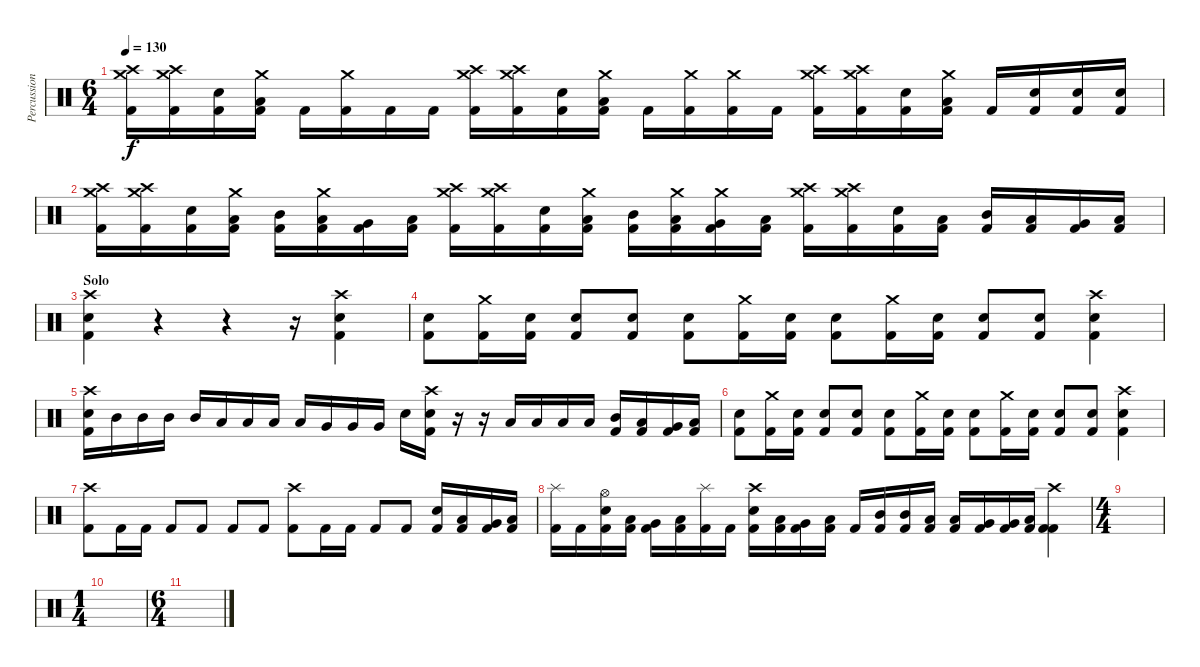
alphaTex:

\track ("Percussion" "Percussion") {instrument percussion}
\staff {score}
\articulation defaults
\ts (6 4)
\tempo 130
\clef neutral
\ks c
("Crash medium (hit)" "Crash high (hit)" "Kick (hit) 2").16{dy f} ("Crash medium (hit)" "Crash high (hit)" "Kick (hit) 2").16 ("Electric Snare (hit)" "Kick (hit) 2").16 ("Crash medium (hit)" "Low Tom (hit)" "Kick (hit) 2").16 "Kick (hit) 2".16 ("Crash medium (hit)" "Kick (hit) 2").16 "Kick (hit) 2".16 "Kick (hit) 2".16 ("Crash medium (hit)" "Crash high (hit)" "Kick (hit) 2").16 ("Crash medium (hit)" "Crash high (hit)" "Kick (hit) 2").16 ("Electric Snare (hit)" "Kick (hit) 2").16 ("Crash medium (hit)" "Low Tom (hit)" "Kick (hit) 2").16 "Kick (hit) 2".16 ("Crash medium (hit)" "Kick (hit) 2").16 ("Crash medium (hit)" "Kick (hit) 2").16 "Kick (hit) 2".16 ("Crash medium (hit)" "Crash high (hit)" "Kick (hit) 2").16 ("Crash medium (hit)" "Crash high (hit)" "Kick (hit) 2").16 ("Electric Snare (hit)" "Kick (hit) 2").16 ("Crash medium (hit)" "Low Tom (hit)" "Kick (hit) 2").16 "Kick (hit) 2".16 ("Electric Snare (hit)" "Kick (hit) 2").16 ("Electric Snare (hit)" "Kick (hit) 2").16 ("Electric Snare (hit)" "Kick (hit) 2").16 |
("Crash medium (hit)" "Crash high (hit)" "Kick (hit) 2").16 ("Crash medium (hit)" "Crash high (hit)" "Kick (hit) 2").16 ("Electric Snare (hit)" "Kick (hit) 2").16 ("Crash medium (hit)" "Low Tom (hit)" "Kick (hit) 2").16 ("Mid Tom (hit)" "Kick (hit) 2").16 ("Crash medium (hit)" "Low Tom (hit)" "Kick (hit) 2").16 ("Very Low Tom (hit)" "Kick (hit) 2").16 ("Low Floor Tom (hit)" "Kick (hit) 2").16 ("Crash medium (hit)" "Crash high (hit)" "Kick (hit) 2").16 ("Crash medium (hit)" "Crash high (hit)" "Kick (hit) 2").16 ("Electric Snare (hit)" "Kick (hit) 2").16 ("Crash medium (hit)" "Low Tom (hit)" "Kick (hit) 2").16 ("Mid Tom (hit)" "Kick (hit) 2").16 ("Crash medium (hit)" "Low Tom (hit)" "Kick (hit) 2").16 ("Crash medium (hit)" "Very Low Tom (hit)" "Kick (hit) 2").16 ("Low Floor Tom (hit)" "Kick (hit) 2").16 ("Crash medium (hit)" "Crash high (hit)" "Kick (hit) 2").16 ("Crash medium (hit)" "Crash high (hit)" "Kick (hit) 2").16 ("Electric Snare (hit)" "Kick (hit) 2").16 ("Low Tom (hit)" "Kick (hit) 2").16 ("Mid Tom (hit)" "Kick (hit) 2").16 ("Low Tom (hit)" "Kick (hit) 2").16 ("Very Low Tom (hit)" "Kick (hit) 2").16 ("Low Floor Tom (hit)" "Kick (hit) 2").16 |
\section ("" "Solo")
("Crash high (hit)" "Snare (hit) 2" "Kick (hit) 2").4 r.4 r.4 r.16 ("Crash high (hit)" "Snare (hit) 2" "Kick (hit) 2").4 |
("Snare (hit) 2" "Kick (hit) 2").8 ("Crash medium (hit)" "Kick (hit) 2").16 ("Electric Snare (hit)" "Kick (hit) 2").16 ("Snare (hit) 2" "Kick (hit) 2").8 ("Electric Snare (hit)" "Kick (hit) 2").8 ("Snare (hit) 2" "Kick (hit) 2").8 ("Crash medium (hit)" "Kick (hit) 2").16 ("Snare (hit) 2" "Kick (hit) 2").16 ("Snare (hit) 2" "Kick (hit) 2").8 ("Crash medium (hit)" "Kick (hit) 2").16 ("Electric Snare (hit)" "Kick (hit) 2").16 ("Snare (hit) 2" "Kick (hit) 2").8 ("Electric Snare (hit)" "Kick (hit) 2").8 ("Crash high (hit)" "Electric Snare (hit)" "Kick (hit) 2").4 |
("Crash high (hit)" "Snare (hit) 2" "Kick (hit) 2").16 "Mid Tom (hit)".16 "Mid Tom (hit)".16 "Mid Tom (hit)".16 "Mid Tom (hit)".16 "Low Tom (hit)".16 "Low Tom (hit)".16 "Low Tom (hit)".16 "Low Tom (hit)".16 "Very Low Tom (hit)".16 "Very Low Tom (hit)".16 "Very Low Tom (hit)".16 "Electric Snare (hit)".16 ("Crash high (hit)" "Snare (hit) 2" "Kick (hit) 2").16 r.16 r.16 "Low Tom (hit)".16 "Low Tom (hit)".16 "Low Floor Tom (hit)".16 "Low Floor Tom (hit)".16 ("Mid Tom (hit)" "Kick (hit) 2").16 ("Low Tom (hit)" "Kick (hit) 2").16 ("Very Low Tom (hit)" "Kick (hit) 2").16 ("Low Floor Tom (hit)" "Kick (hit) 2").16 |
("Snare (hit) 2" "Kick (hit) 2").8 ("Crash medium (hit)" "Kick (hit) 2").16 ("Electric Snare (hit)" "Kick (hit) 2").16 ("Snare (hit) 2" "Kick (hit) 2").8 ("Electric Snare (hit)" "Kick (hit) 2").8 ("Snare (hit) 2" "Kick (hit) 2").8 ("Crash medium (hit)" "Kick (hit) 2").16 ("Snare (hit) 2" "Kick (hit) 2").16 ("Snare (hit) 2" "Kick (hit) 2").8 ("Crash medium (hit)" "Kick (hit) 2").16 ("Electric Snare (hit)" "Kick (hit) 2").16 ("Snare (hit) 2" "Kick (hit) 2").8 ("Electric Snare (hit)" "Kick (hit) 2").8 ("Crash high (hit)" "Electric Snare (hit)" "Kick (hit) 2").4 |
("Crash high (hit)" "Kick (hit) 2").8 "Kick (hit) 2".16 "Kick (hit) 2".16 "Kick (hit) 2".8 "Kick (hit) 2".8 "Kick (hit) 2".8 "Kick (hit) 2".8 ("Crash high (hit)" "Kick (hit) 2").8 "Kick (hit) 2".16 "Kick (hit) 2".16 "Kick (hit) 2".8 "Kick (hit) 2".8 ("Electric Snare (hit)" "Kick (hit) 2").16 ("Low Tom (hit)" "Kick (hit) 2").16 ("Very Low Tom (hit)" "Kick (hit) 2").16 ("Low Floor Tom (hit)" "Kick (hit) 2").16 |
("Splash (hit)" "Kick (hit) 2").16 "Kick (hit) 2".16 ("Hi-Hat (open)" "Snare (hit) 2" "Kick (hit) 2").16 ("Low Tom (hit)" "Kick (hit) 2").16 ("Very Low Tom (hit)" "Kick (hit) 2").16 ("Low Floor Tom (hit)" "Kick (hit) 2").16 ("Splash (hit)" "Kick (hit) 2").16 "Kick (hit) 2".16 ("Crash high (hit)" "Snare (hit) 2" "Kick (hit) 2").16 ("Low Tom (hit)" "Kick (hit) 2").16 ("Very Low Tom (hit)" "Kick (hit) 2").16 ("Low Floor Tom (hit)" "Kick (hit) 2").16 "Kick (hit) 2".16 ("Mid Tom (hit)" "Kick (hit) 2").16 ("Mid Tom (hit)" "Kick (hit) 2").16 ("Low Tom (hit)" "Kick (hit) 2").16 ("Low Tom (hit)" "Kick (hit) 2").16 ("Very Low Tom (hit)" "Kick (hit) 2").16 ("Very Low Tom (hit)" "Kick (hit) 2").16 ("Low Floor Tom (hit)" "Kick (hit) 2").16 ("Crash high (hit)" "Kick (hit) 2" "Kick (hit) 2").4 |
\ts (4 4)
|
\ts (1 4)
|
\ts (6 4)
